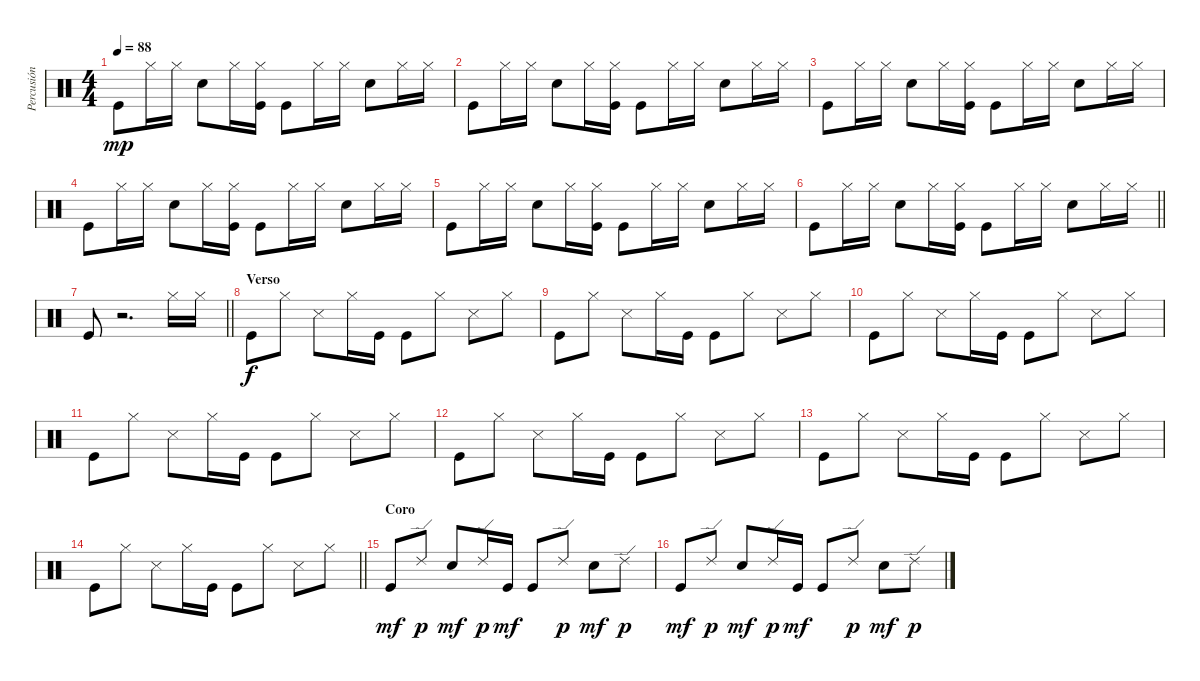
\track ("Percusión" "Percusión") {instrument percussion}
\staff {score}
\articulation defaults
\ts (4 4)
\tempo 88
\clef neutral
\ks c "Kick (hit)".8{dy mp} "Hi-Hat (closed)".16 "Hi-Hat (closed)".16 "Snare (hit) 2".8 "Hi-Hat (closed)".16
("Kick (hit)" "Hi-Hat (closed)").16 "Kick (hit)".8 "Hi-Hat (closed)".16 "Hi-Hat (closed)".16 "Snare (hit) 2".8 "Hi-Hat (closed)".16 "Hi-Hat (closed)".16 |
"Kick (hit)".8 "Hi-Hat (closed)".16 "Hi-Hat (closed)".16 "Snare (hit) 2".8 "Hi-Hat (closed)".16 ("Kick (hit)" "Hi-Hat (closed)").16 "Kick (hit)".8 "Hi-Hat (closed)".16 "Hi-Hat (closed)".16 "Snare (hit) 2".8 "Hi-Hat (closed)".16 "Hi-Hat (closed)".16 |
"Kick (hit)".8 "Hi-Hat (closed)".16 "Hi-Hat (closed)".16 "Snare (hit) 2".8 "Hi-Hat (closed)".16 ("Kick (hit)" "Hi-Hat (closed)").16 "Kick (hit)".8 "Hi-Hat (closed)".16 "Hi-Hat (closed)".16 "Snare (hit) 2".8 "Hi-Hat (closed)".16 "Hi-Hat (closed)".16 |
"Kick (hit)".8 "Hi-Hat (closed)".16 "Hi-Hat (closed)".16 "Snare (hit) 2".8 "Hi-Hat (closed)".16 ("Kick (hit)" "Hi-Hat (closed)").16 "Kick (hit)".8 "Hi-Hat (closed)".16 "Hi-Hat (closed)".16 "Snare (hit) 2".8 "Hi-Hat (closed)".16 "Hi-Hat (closed)".16 |
"Kick (hit)".8 "Hi-Hat (closed)".16 "Hi-Hat (closed)".16 "Snare (hit) 2".8 "Hi-Hat (closed)".16 ("Kick (hit)" "Hi-Hat (closed)").16 "Kick (hit)".8 "Hi-Hat (closed)".16 "Hi-Hat (closed)".16 "Snare (hit) 2".8 "Hi-Hat (closed)".16 "Hi-Hat (closed)".16 |
\barLineRight lightlight "Kick (hit)".8 "Hi-Hat (closed)".16 "Hi-Hat (closed)".16 "Snare (hit) 2".8 "Hi-Hat (closed)".16
("Kick (hit)" "Hi-Hat (closed)").16 "Kick (hit)".8 "Hi-Hat (closed)".16 "Hi-Hat (closed)".16 "Snare (hit) 2".8 "Hi-Hat (closed)".16 "Hi-Hat (closed)".16 |
\barLineRight lightlight "Kick (hit)".8
r.2{d} "Hi-Hat (closed)".16 "Hi-Hat (closed)".16 |
\section ("" "Verso")
"Kick (hit)".8{dy f} "Hi-Hat (closed)".8 "Snare (side stick) 3".8 "Hi-Hat (closed)".16 "Kick (hit)".16 "Kick (hit)".8 "Hi-Hat (closed)".8 "Snare (side stick) 3".8 "Hi-Hat (closed)".8 |
"Kick (hit)".8 "Hi-Hat (closed)".8 "Snare (side stick) 3".8 "Hi-Hat (closed)".16 "Kick (hit)".16 "Kick (hit)".8 "Hi-Hat (closed)".8 "Snare (side stick) 3".8 "Hi-Hat (closed)".8 |
"Kick (hit)".8 "Hi-Hat (closed)".8 "Snare (side stick) 3".8 "Hi-Hat (closed)".16 "Kick (hit)".16 "Kick (hit)".8 "Hi-Hat (closed)".8 "Snare (side stick) 3".8 "Hi-Hat (closed)".8 |
"Kick (hit)".8 "Hi-Hat (closed)".8 "Snare (side stick) 3".8 "Hi-Hat (closed)".16 "Kick (hit)".16 "Kick (hit)".8 "Hi-Hat (closed)".8 "Snare (side stick) 3".8 "Hi-Hat (closed)".8 |
"Kick (hit)".8 "Hi-Hat (closed)".8 "Snare (side stick) 3".8 "Hi-Hat (closed)".16 "Kick (hit)".16 "Kick (hit)".8 "Hi-Hat (closed)".8 "Snare (side stick) 3".8 "Hi-Hat (closed)".8 |
"Kick (hit)".8 "Hi-Hat (closed)".8 "Snare (side stick) 3".8 "Hi-Hat (closed)".16 "Kick (hit)".16 "Kick (hit)".8 "Hi-Hat (closed)".8 "Snare (side stick) 3".8 "Hi-Hat (closed)".8 |
\barLineRight lightlight "Kick (hit)".8 "Hi-Hat (closed)".8 "Snare (side stick) 3".8 "Hi-Hat (closed)".16 "Kick (hit)".16 "Kick (hit)".8 "Hi-Hat (closed)".8 "Snare (side stick) 3".8 "Hi-Hat (closed)".8
|
\section ("" "Coro ")
"Kick (hit)".8{dy mf} "Ride (edge) 2".8{dy p} "Electric Snare (hit)".8{dy mf} "Ride (edge) 2".16{dy p} "Kick (hit)".16{dy mf} "Kick (hit)".8 "Ride (edge) 2".8{dy p} "Electric Snare (hit)".8{dy mf} "Ride (edge) 2".8{dy p} |
"Kick (hit)".8{dy mf} "Ride (edge) 2".8{dy p} "Electric Snare (hit)".8{dy mf} "Ride (edge) 2".16{dy p} "Kick (hit)".16{dy mf} "Kick (hit)".8 "Ride (edge) 2".8{dy p} "Electric Snare (hit)".8{dy mf} "Ride (edge) 2".8{dy p}
